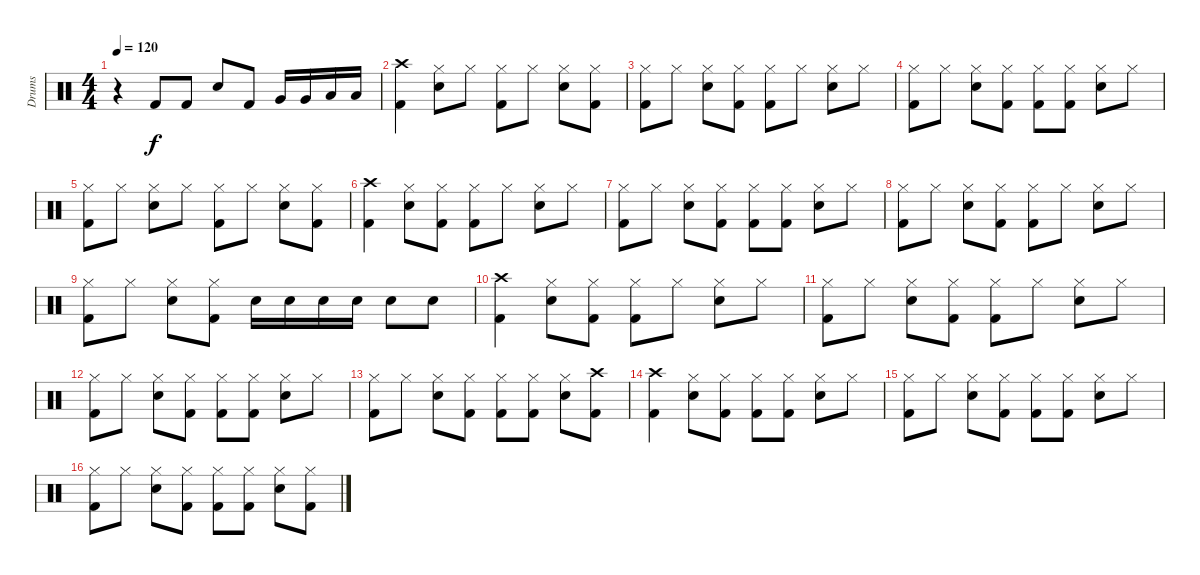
\track ("Drums" "Drums") {instrument percussion}
\staff {score}
\articulation defaults
\ts (4 4)
\tempo 120
\clef neutral
\ks c
r.4{dy f} "Kick (hit) 2".8 "Kick (hit) 2".8 "Electric Snare (hit)".8 "Kick (hit) 2".8 "Very Low Tom (hit)".16 "Very Low Tom (hit)".16 "Low Floor Tom (hit)".16 "Low Floor Tom (hit)".16 |
("Crash high (hit)" "Kick (hit) 2").4 ("Hi-Hat (closed)" "Electric Snare (hit)").8 "Hi-Hat (closed)".8 ("Hi-Hat (closed)" "Kick (hit) 2").8 "Hi-Hat (closed)".8 ("Hi-Hat (closed)" "Electric Snare (hit)").8 ("Hi-Hat (closed)" "Kick (hit) 2").8 |
("Hi-Hat (closed)" "Kick (hit) 2").8 "Hi-Hat (closed)".8 ("Hi-Hat (closed)" "Electric Snare (hit)").8 ("Hi-Hat (closed)" "Kick (hit) 2").8 ("Hi-Hat (closed)" "Kick (hit) 2").8 "Hi-Hat (closed)".8 ("Hi-Hat (closed)" "Electric Snare (hit)").8 "Hi-Hat (closed)".8 |
("Hi-Hat (closed)" "Kick (hit) 2").8 "Hi-Hat (closed)".8 ("Hi-Hat (closed)" "Electric Snare (hit)").8 ("Hi-Hat (closed)" "Kick (hit) 2").8 ("Hi-Hat (closed)" "Kick (hit) 2").8 ("Hi-Hat (closed)" "Kick (hit) 2").8 ("Hi-Hat (closed)" "Electric Snare (hit)").8 "Hi-Hat (closed)".8 |
("Hi-Hat (closed)" "Kick (hit) 2").8 "Hi-Hat (closed)".8 ("Hi-Hat (closed)" "Electric Snare (hit)").8 "Hi-Hat (closed)".8 ("Hi-Hat (closed)" "Kick (hit) 2").8 "Hi-Hat (closed)".8 ("Hi-Hat (closed)" "Electric Snare (hit)").8 ("Hi-Hat (closed)" "Kick (hit) 2").8 |
("Crash high (hit)" "Kick (hit) 2").4 ("Hi-Hat (closed)" "Electric Snare (hit)").8 ("Hi-Hat (closed)" "Kick (hit) 2").8 ("Hi-Hat (closed)" "Kick (hit) 2").8 "Hi-Hat (closed)".8 ("Hi-Hat (closed)" "Electric Snare (hit)").8 "Hi-Hat (closed)".8 |
("Hi-Hat (closed)" "Kick (hit) 2").8 "Hi-Hat (closed)".8 ("Hi-Hat (closed)" "Electric Snare (hit)").8 ("Hi-Hat (closed)" "Kick (hit) 2").8 ("Hi-Hat (closed)" "Kick (hit) 2").8 ("Hi-Hat (closed)" "Kick (hit) 2").8 ("Hi-Hat (closed)" "Electric Snare (hit)").8 "Hi-Hat (closed)".8 |
("Hi-Hat (closed)" "Kick (hit) 2").8 "Hi-Hat (closed)".8 ("Hi-Hat (closed)" "Electric Snare (hit)").8 ("Hi-Hat (closed)" "Kick (hit) 2").8 ("Hi-Hat (closed)" "Kick (hit) 2").8 "Hi-Hat (closed)".8 ("Hi-Hat (closed)" "Electric Snare (hit)").8 "Hi-Hat (closed)".8 |
("Hi-Hat (closed)" "Kick (hit) 2").8 "Hi-Hat (closed)".8 ("Hi-Hat (closed)" "Electric Snare (hit)").8 ("Hi-Hat (closed)" "Kick (hit) 2").8 "Electric Snare (hit)".16 "Electric Snare (hit)".16 "Electric Snare (hit)".16 "Electric Snare (hit)".16 "Electric Snare (hit)".8 "Electric Snare (hit)".8 |
("Crash high (hit)" "Kick (hit) 2").4 ("Hi-Hat (closed)" "Electric Snare (hit)").8 ("Hi-Hat (closed)" "Kick (hit) 2").8 ("Hi-Hat (closed)" "Kick (hit) 2").8 "Hi-Hat (closed)".8 ("Hi-Hat (closed)" "Electric Snare (hit)").8 "Hi-Hat (closed)".8 |
("Hi-Hat (closed)" "Kick (hit) 2").8 "Hi-Hat (closed)".8 ("Hi-Hat (closed)" "Electric Snare (hit)").8 ("Hi-Hat (closed)" "Kick (hit) 2").8 ("Hi-Hat (closed)" "Kick (hit) 2").8 "Hi-Hat (closed)".8 ("Hi-Hat (closed)" "Electric Snare (hit)").8 "Hi-Hat (closed)".8 |
("Hi-Hat (closed)" "Kick (hit) 2").8 "Hi-Hat (closed)".8 ("Hi-Hat (closed)" "Electric Snare (hit)").8 ("Hi-Hat (closed)" "Kick (hit) 2").8 ("Hi-Hat (closed)" "Kick (hit) 2").8 ("Hi-Hat (closed)" "Kick (hit) 2").8 ("Hi-Hat (closed)" "Electric Snare (hit)").8 "Hi-Hat (closed)".8 |
("Hi-Hat (closed)" "Kick (hit) 2").8 "Hi-Hat (closed)".8 ("Hi-Hat (closed)" "Electric Snare (hit)").8 ("Hi-Hat (closed)" "Kick (hit) 2").8 ("Hi-Hat (closed)" "Kick (hit) 2").8 ("Hi-Hat (closed)" "Kick (hit) 2").8 ("Hi-Hat (closed)" "Electric Snare (hit)").8 ("Crash high (hit)" "Kick (hit) 2").8 |
("Crash high (hit)" "Kick (hit) 2").4 ("Hi-Hat (closed)" "Electric Snare (hit)").8 ("Hi-Hat (closed)" "Kick (hit) 2").8 ("Hi-Hat (closed)" "Kick (hit) 2").8 ("Hi-Hat (closed)" "Kick (hit) 2").8 ("Hi-Hat (closed)" "Electric Snare (hit)").8 "Hi-Hat (closed)".8 |
("Hi-Hat (closed)" "Kick (hit) 2").8 "Hi-Hat (closed)".8 ("Hi-Hat (closed)" "Electric Snare (hit)").8 ("Hi-Hat (closed)" "Kick (hit) 2").8 ("Hi-Hat (closed)" "Kick (hit) 2").8 ("Hi-Hat (closed)" "Kick (hit) 2").8 ("Hi-Hat (closed)" "Electric Snare (hit)").8 "Hi-Hat (closed)".8 |
("Hi-Hat (closed)" "Kick (hit) 2").8 "Hi-Hat (closed)".8 ("Hi-Hat (closed)" "Electric Snare (hit)").8 ("Hi-Hat (closed)" "Kick (hit) 2").8 ("Hi-Hat (closed)" "Kick (hit) 2").8 ("Hi-Hat (closed)" "Kick (hit) 2").8 ("Hi-Hat (closed)" "Electric Snare (hit)").8 ("Hi-Hat (closed)" "Kick (hit) 2").8
